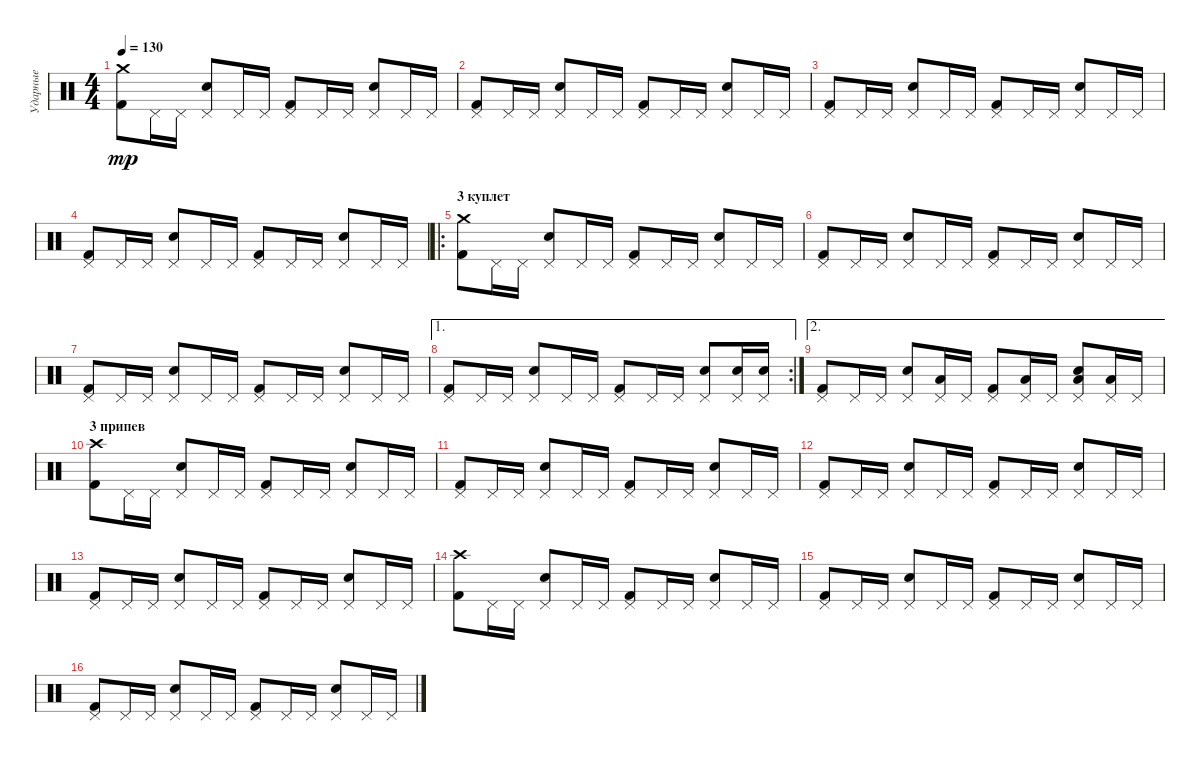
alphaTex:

\track ("Ударные" "Ударные") {instrument percussion}
\staff {score}
\articulation defaults
\ts (4 4)
\tempo 130
\clef neutral
\ks c
("Crash medium (hit)" "Kick (hit) 2").8{dy mp} "Pedal Hi-Hat (hit)".16 "Pedal Hi-Hat (hit)".16 ("Pedal Hi-Hat (hit)" "Snare (hit) 2").8 "Pedal Hi-Hat (hit)".16 "Pedal Hi-Hat (hit)".16 ("Pedal Hi-Hat (hit)" "Kick (hit) 2").8 "Pedal Hi-Hat (hit)".16 "Pedal Hi-Hat (hit)".16 ("Pedal Hi-Hat (hit)" "Snare (hit) 2").8 "Pedal Hi-Hat (hit)".16 "Pedal Hi-Hat (hit)".16 |
("Pedal Hi-Hat (hit)" "Kick (hit) 2").8 "Pedal Hi-Hat (hit)".16 "Pedal Hi-Hat (hit)".16 ("Pedal Hi-Hat (hit)" "Snare (hit) 2").8 "Pedal Hi-Hat (hit)".16 "Pedal Hi-Hat (hit)".16 ("Pedal Hi-Hat (hit)" "Kick (hit) 2").8 "Pedal Hi-Hat (hit)".16 "Pedal Hi-Hat (hit)".16 ("Pedal Hi-Hat (hit)" "Snare (hit) 2").8 "Pedal Hi-Hat (hit)".16 "Pedal Hi-Hat (hit)".16 |
("Pedal Hi-Hat (hit)" "Kick (hit) 2").8 "Pedal Hi-Hat (hit)".16 "Pedal Hi-Hat (hit)".16 ("Pedal Hi-Hat (hit)" "Snare (hit) 2").8 "Pedal Hi-Hat (hit)".16 "Pedal Hi-Hat (hit)".16 ("Pedal Hi-Hat (hit)" "Kick (hit) 2").8 "Pedal Hi-Hat (hit)".16 "Pedal Hi-Hat (hit)".16 ("Pedal Hi-Hat (hit)" "Snare (hit) 2").8 "Pedal Hi-Hat (hit)".16 "Pedal Hi-Hat (hit)".16 |
("Pedal Hi-Hat (hit)" "Kick (hit) 2").8 "Pedal Hi-Hat (hit)".16 "Pedal Hi-Hat (hit)".16 ("Pedal Hi-Hat (hit)" "Snare (hit) 2").8 "Pedal Hi-Hat (hit)".16 "Pedal Hi-Hat (hit)".16 ("Pedal Hi-Hat (hit)" "Kick (hit) 2").8 "Pedal Hi-Hat (hit)".16 "Pedal Hi-Hat (hit)".16 ("Pedal Hi-Hat (hit)" "Snare (hit) 2").8 "Pedal Hi-Hat (hit)".16 "Pedal Hi-Hat (hit)".16 |
\ro
\section ("" "3 куплет")
("Crash medium (hit)" "Kick (hit) 2").8 "Pedal Hi-Hat (hit)".16 "Pedal Hi-Hat (hit)".16 ("Pedal Hi-Hat (hit)" "Snare (hit) 2").8 "Pedal Hi-Hat (hit)".16 "Pedal Hi-Hat (hit)".16 ("Pedal Hi-Hat (hit)" "Kick (hit) 2").8 "Pedal Hi-Hat (hit)".16 "Pedal Hi-Hat (hit)".16 ("Pedal Hi-Hat (hit)" "Snare (hit) 2").8 "Pedal Hi-Hat (hit)".16 "Pedal Hi-Hat (hit)".16 |
("Pedal Hi-Hat (hit)" "Kick (hit) 2").8 "Pedal Hi-Hat (hit)".16 "Pedal Hi-Hat (hit)".16 ("Pedal Hi-Hat (hit)" "Snare (hit) 2").8 "Pedal Hi-Hat (hit)".16 "Pedal Hi-Hat (hit)".16 ("Pedal Hi-Hat (hit)" "Kick (hit) 2").8 "Pedal Hi-Hat (hit)".16 "Pedal Hi-Hat (hit)".16 ("Pedal Hi-Hat (hit)" "Snare (hit) 2").8 "Pedal Hi-Hat (hit)".16 "Pedal Hi-Hat (hit)".16 |
("Pedal Hi-Hat (hit)" "Kick (hit) 2").8 "Pedal Hi-Hat (hit)".16 "Pedal Hi-Hat (hit)".16 ("Pedal Hi-Hat (hit)" "Snare (hit) 2").8 "Pedal Hi-Hat (hit)".16 "Pedal Hi-Hat (hit)".16 ("Pedal Hi-Hat (hit)" "Kick (hit) 2").8 "Pedal Hi-Hat (hit)".16 "Pedal Hi-Hat (hit)".16 ("Pedal Hi-Hat (hit)" "Snare (hit) 2").8 "Pedal Hi-Hat (hit)".16 "Pedal Hi-Hat (hit)".16 |
\ae 1
\rc 2
("Pedal Hi-Hat (hit)" "Kick (hit) 2").8 "Pedal Hi-Hat (hit)".16 "Pedal Hi-Hat (hit)".16 ("Pedal Hi-Hat (hit)" "Snare (hit) 2").8 "Pedal Hi-Hat (hit)".16 "Pedal Hi-Hat (hit)".16 ("Pedal Hi-Hat (hit)" "Kick (hit) 2").8 "Pedal Hi-Hat (hit)".16 "Pedal Hi-Hat (hit)".16 ("Pedal Hi-Hat (hit)" "Snare (hit) 2").8 ("Pedal Hi-Hat (hit)" "Snare (hit) 2").16 ("Pedal Hi-Hat (hit)" "Snare (hit) 2").16 |
\ae 2
("Pedal Hi-Hat (hit)" "Kick (hit) 2").8 "Pedal Hi-Hat (hit)".16 "Pedal Hi-Hat (hit)".16 ("Pedal Hi-Hat (hit)" "Snare (hit) 2").8 ("Pedal Hi-Hat (hit)" "Low Tom (hit)").16 "Pedal Hi-Hat (hit)".16 ("Pedal Hi-Hat (hit)" "Kick (hit) 2").8 ("Pedal Hi-Hat (hit)" "Low Tom (hit)").16 "Pedal Hi-Hat (hit)".16 ("Pedal Hi-Hat (hit)" "Snare (hit) 2" "Low Tom (hit)").8 ("Pedal Hi-Hat (hit)" "Low Tom (hit)").16 "Pedal Hi-Hat (hit)".16 |
\section ("" "3 припев")
("Crash high (hit)" "Kick (hit) 2").8 "Pedal Hi-Hat (hit)".16 "Pedal Hi-Hat (hit)".16 ("Pedal Hi-Hat (hit)" "Snare (hit) 2").8 "Pedal Hi-Hat (hit)".16 "Pedal Hi-Hat (hit)".16 ("Pedal Hi-Hat (hit)" "Kick (hit) 2").8 "Pedal Hi-Hat (hit)".16 "Pedal Hi-Hat (hit)".16 ("Pedal Hi-Hat (hit)" "Snare (hit) 2").8 "Pedal Hi-Hat (hit)".16 "Pedal Hi-Hat (hit)".16 |
("Pedal Hi-Hat (hit)" "Kick (hit) 2").8 "Pedal Hi-Hat (hit)".16 "Pedal Hi-Hat (hit)".16 ("Pedal Hi-Hat (hit)" "Snare (hit) 2").8 "Pedal Hi-Hat (hit)".16 "Pedal Hi-Hat (hit)".16 ("Pedal Hi-Hat (hit)" "Kick (hit) 2").8 "Pedal Hi-Hat (hit)".16 "Pedal Hi-Hat (hit)".16 ("Pedal Hi-Hat (hit)" "Snare (hit) 2").8 "Pedal Hi-Hat (hit)".16 "Pedal Hi-Hat (hit)".16 |
("Pedal Hi-Hat (hit)" "Kick (hit) 2").8 "Pedal Hi-Hat (hit)".16 "Pedal Hi-Hat (hit)".16 ("Pedal Hi-Hat (hit)" "Snare (hit) 2").8 "Pedal Hi-Hat (hit)".16 "Pedal Hi-Hat (hit)".16 ("Pedal Hi-Hat (hit)" "Kick (hit) 2").8 "Pedal Hi-Hat (hit)".16 "Pedal Hi-Hat (hit)".16 ("Pedal Hi-Hat (hit)" "Snare (hit) 2").8 "Pedal Hi-Hat (hit)".16 "Pedal Hi-Hat (hit)".16 |
("Pedal Hi-Hat (hit)" "Kick (hit) 2").8 "Pedal Hi-Hat (hit)".16 "Pedal Hi-Hat (hit)".16 ("Pedal Hi-Hat (hit)" "Snare (hit) 2").8 "Pedal Hi-Hat (hit)".16 "Pedal Hi-Hat (hit)".16 ("Pedal Hi-Hat (hit)" "Kick (hit) 2").8 "Pedal Hi-Hat (hit)".16 "Pedal Hi-Hat (hit)".16 ("Pedal Hi-Hat (hit)" "Snare (hit) 2").8 "Pedal Hi-Hat (hit)".16 "Pedal Hi-Hat (hit)".16 |
("Crash high (hit)" "Kick (hit) 2").8 "Pedal Hi-Hat (hit)".16 "Pedal Hi-Hat (hit)".16 ("Pedal Hi-Hat (hit)" "Snare (hit) 2").8 "Pedal Hi-Hat (hit)".16 "Pedal Hi-Hat (hit)".16 ("Pedal Hi-Hat (hit)" "Kick (hit) 2").8 "Pedal Hi-Hat (hit)".16 "Pedal Hi-Hat (hit)".16 ("Pedal Hi-Hat (hit)" "Snare (hit) 2").8 "Pedal Hi-Hat (hit)".16 "Pedal Hi-Hat (hit)".16 |
("Pedal Hi-Hat (hit)" "Kick (hit) 2").8 "Pedal Hi-Hat (hit)".16 "Pedal Hi-Hat (hit)".16 ("Pedal Hi-Hat (hit)" "Snare (hit) 2").8 "Pedal Hi-Hat (hit)".16 "Pedal Hi-Hat (hit)".16 ("Pedal Hi-Hat (hit)" "Kick (hit) 2").8 "Pedal Hi-Hat (hit)".16 "Pedal Hi-Hat (hit)".16 ("Pedal Hi-Hat (hit)" "Snare (hit) 2").8 "Pedal Hi-Hat (hit)".16 "Pedal Hi-Hat (hit)".16 |
("Pedal Hi-Hat (hit)" "Kick (hit) 2").8 "Pedal Hi-Hat (hit)".16 "Pedal Hi-Hat (hit)".16 ("Pedal Hi-Hat (hit)" "Snare (hit) 2").8 "Pedal Hi-Hat (hit)".16 "Pedal Hi-Hat (hit)".16 ("Pedal Hi-Hat (hit)" "Kick (hit) 2").8 "Pedal Hi-Hat (hit)".16 "Pedal Hi-Hat (hit)".16 ("Pedal Hi-Hat (hit)" "Snare (hit) 2").8 "Pedal Hi-Hat (hit)".16 "Pedal Hi-Hat (hit)".16
